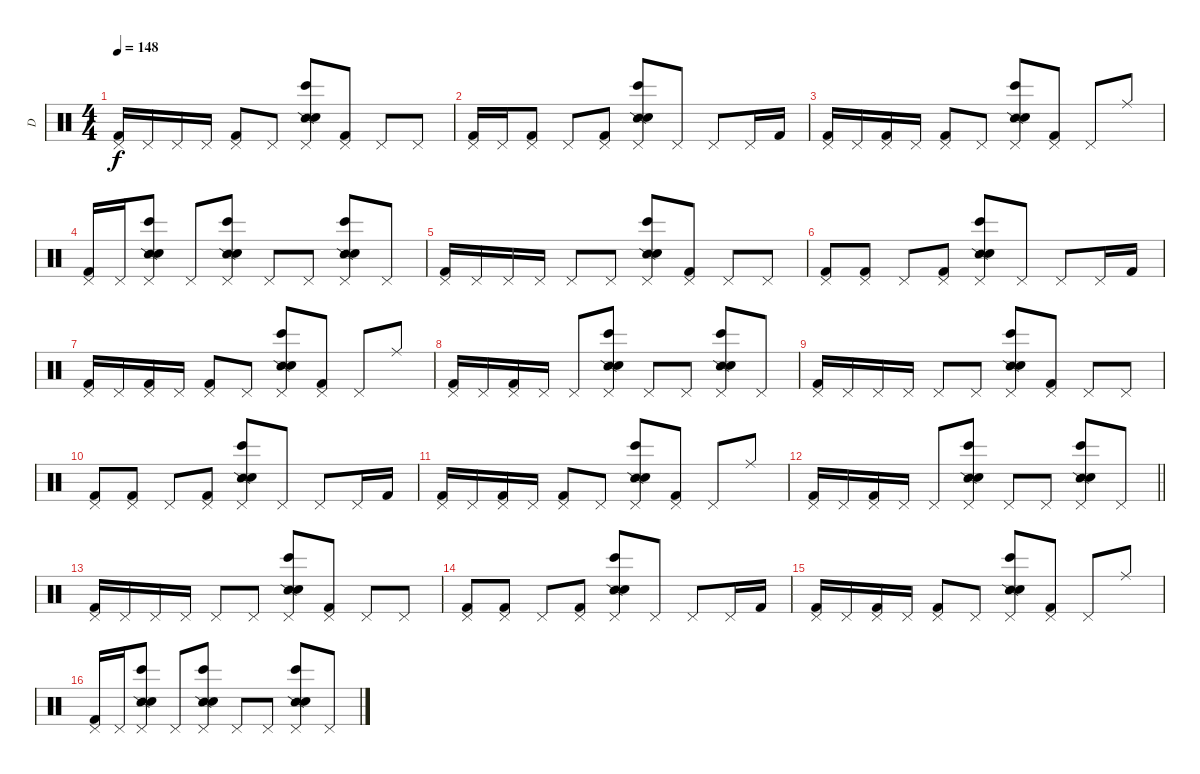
\track ("D" "D") {instrument percussion}
\staff {score}
\articulation defaults
\ts (4 4)
\tempo 148
\clef neutral
\ks c
("Kick (hit) 2" "Pedal Hi-Hat (hit)").16{dy f} "Pedal Hi-Hat (hit)".16 "Pedal Hi-Hat (hit)".16 "Pedal Hi-Hat (hit)".16 ("Kick (hit) 2" "Pedal Hi-Hat (hit)").8 "Pedal Hi-Hat (hit)".8 ("Bongo High (hit)" "Snare (side stick) 2" "Electric Snare (hit)" "Pedal Hi-Hat (hit)").8 ("Kick (hit) 2" "Pedal Hi-Hat (hit)").8 "Pedal Hi-Hat (hit)".8 "Pedal Hi-Hat (hit)".8 |
("Kick (hit) 2" "Pedal Hi-Hat (hit)").16 "Pedal Hi-Hat (hit)".16 ("Kick (hit) 2" "Pedal Hi-Hat (hit)").8 "Pedal Hi-Hat (hit)".8 ("Kick (hit) 2" "Pedal Hi-Hat (hit)").8 ("Bongo High (hit)" "Snare (side stick) 2" "Electric Snare (hit)" "Pedal Hi-Hat (hit)").8 "Pedal Hi-Hat (hit)".8 "Pedal Hi-Hat (hit)".8 "Pedal Hi-Hat (hit)".16 "Kick (hit) 2".16 |
("Kick (hit) 2" "Pedal Hi-Hat (hit)").16 "Pedal Hi-Hat (hit)".16 ("Kick (hit) 2" "Pedal Hi-Hat (hit)").16 "Pedal Hi-Hat (hit)".16 ("Kick (hit) 2" "Pedal Hi-Hat (hit)").8 "Pedal Hi-Hat (hit)".8 ("Bongo High (hit)" "Snare (side stick) 2" "Electric Snare (hit)" "Pedal Hi-Hat (hit)").8 ("Kick (hit) 2" "Pedal Hi-Hat (hit)").8 "Pedal Hi-Hat (hit)".8 "Ride (middle)".8 |
("Kick (hit) 2" "Pedal Hi-Hat (hit)").16 "Pedal Hi-Hat (hit)".16 ("Bongo High (hit)" "Snare (side stick) 2" "Electric Snare (hit)" "Pedal Hi-Hat (hit)").8 "Pedal Hi-Hat (hit)".8 ("Bongo High (hit)" "Snare (side stick) 2" "Electric Snare (hit)" "Pedal Hi-Hat (hit)").8 "Pedal Hi-Hat (hit)".8 "Pedal Hi-Hat (hit)".8 ("Bongo High (hit)" "Snare (side stick) 2" "Electric Snare (hit)" "Pedal Hi-Hat (hit)").8 "Pedal Hi-Hat (hit)".8 |
("Kick (hit) 2" "Pedal Hi-Hat (hit)").16 "Pedal Hi-Hat (hit)".16 "Pedal Hi-Hat (hit)".16 "Pedal Hi-Hat (hit)".16 "Pedal Hi-Hat (hit)".8 "Pedal Hi-Hat (hit)".8 ("Bongo High (hit)" "Snare (side stick) 2" "Electric Snare (hit)" "Pedal Hi-Hat (hit)").8 ("Kick (hit) 2" "Pedal Hi-Hat (hit)").8 "Pedal Hi-Hat (hit)".8 "Pedal Hi-Hat (hit)".8 |
("Kick (hit) 2" "Pedal Hi-Hat (hit)").8 ("Kick (hit) 2" "Pedal Hi-Hat (hit)").8 "Pedal Hi-Hat (hit)".8 ("Kick (hit) 2" "Pedal Hi-Hat (hit)").8 ("Bongo High (hit)" "Snare (side stick) 2" "Electric Snare (hit)" "Pedal Hi-Hat (hit)").8 "Pedal Hi-Hat (hit)".8 "Pedal Hi-Hat (hit)".8 "Pedal Hi-Hat (hit)".16 "Kick (hit) 2".16 |
("Kick (hit) 2" "Pedal Hi-Hat (hit)").16 "Pedal Hi-Hat (hit)".16 ("Kick (hit) 2" "Pedal Hi-Hat (hit)").16 "Pedal Hi-Hat (hit)".16 ("Kick (hit) 2" "Pedal Hi-Hat (hit)").8 "Pedal Hi-Hat (hit)".8 ("Bongo High (hit)" "Snare (side stick) 2" "Electric Snare (hit)" "Pedal Hi-Hat (hit)").8 ("Kick (hit) 2" "Pedal Hi-Hat (hit)").8 "Pedal Hi-Hat (hit)".8 "Ride (middle)".8 |
("Kick (hit) 2" "Pedal Hi-Hat (hit)").16 "Pedal Hi-Hat (hit)".16 ("Kick (hit) 2" "Pedal Hi-Hat (hit)").16 "Pedal Hi-Hat (hit)".16 "Pedal Hi-Hat (hit)".8 ("Bongo High (hit)" "Snare (side stick) 2" "Electric Snare (hit)" "Pedal Hi-Hat (hit)").8 "Pedal Hi-Hat (hit)".8 "Pedal Hi-Hat (hit)".8 ("Bongo High (hit)" "Snare (side stick) 2" "Electric Snare (hit)" "Pedal Hi-Hat (hit)").8 "Pedal Hi-Hat (hit)".8 |
("Kick (hit) 2" "Pedal Hi-Hat (hit)").16 "Pedal Hi-Hat (hit)".16 "Pedal Hi-Hat (hit)".16 "Pedal Hi-Hat (hit)".16 "Pedal Hi-Hat (hit)".8 "Pedal Hi-Hat (hit)".8 ("Bongo High (hit)" "Snare (side stick) 2" "Electric Snare (hit)" "Pedal Hi-Hat (hit)").8 ("Kick (hit) 2" "Pedal Hi-Hat (hit)").8 "Pedal Hi-Hat (hit)".8 "Pedal Hi-Hat (hit)".8 |
("Kick (hit) 2" "Pedal Hi-Hat (hit)").8 ("Kick (hit) 2" "Pedal Hi-Hat (hit)").8 "Pedal Hi-Hat (hit)".8 ("Kick (hit) 2" "Pedal Hi-Hat (hit)").8 ("Bongo High (hit)" "Snare (side stick) 2" "Electric Snare (hit)" "Pedal Hi-Hat (hit)").8 "Pedal Hi-Hat (hit)".8 "Pedal Hi-Hat (hit)".8 "Pedal Hi-Hat (hit)".16 "Kick (hit) 2".16 |
("Kick (hit) 2" "Pedal Hi-Hat (hit)").16 "Pedal Hi-Hat (hit)".16 ("Kick (hit) 2" "Pedal Hi-Hat (hit)").16 "Pedal Hi-Hat (hit)".16 ("Kick (hit) 2" "Pedal Hi-Hat (hit)").8 "Pedal Hi-Hat (hit)".8 ("Bongo High (hit)" "Snare (side stick) 2" "Electric Snare (hit)" "Pedal Hi-Hat (hit)").8 ("Kick (hit) 2" "Pedal Hi-Hat (hit)").8 "Pedal Hi-Hat (hit)".8 "Ride (middle)".8 |
\barLineRight lightlight
("Kick (hit) 2" "Pedal Hi-Hat (hit)").16 "Pedal Hi-Hat (hit)".16 ("Kick (hit) 2" "Pedal Hi-Hat (hit)").16 "Pedal Hi-Hat (hit)".16 "Pedal Hi-Hat (hit)".8 ("Bongo High (hit)" "Snare (side stick) 2" "Electric Snare (hit)" "Pedal Hi-Hat (hit)").8 "Pedal Hi-Hat (hit)".8 "Pedal Hi-Hat (hit)".8 ("Bongo High (hit)" "Snare (side stick) 2" "Electric Snare (hit)" "Pedal Hi-Hat (hit)").8 "Pedal Hi-Hat (hit)".8 |
("Kick (hit) 2" "Pedal Hi-Hat (hit)").16 "Pedal Hi-Hat (hit)".16 "Pedal Hi-Hat (hit)".16 "Pedal Hi-Hat (hit)".16 "Pedal Hi-Hat (hit)".8 "Pedal Hi-Hat (hit)".8 ("Bongo High (hit)" "Snare (side stick) 2" "Electric Snare (hit)" "Pedal Hi-Hat (hit)").8 ("Kick (hit) 2" "Pedal Hi-Hat (hit)").8 "Pedal Hi-Hat (hit)".8 "Pedal Hi-Hat (hit)".8 |
("Kick (hit) 2" "Pedal Hi-Hat (hit)").8 ("Kick (hit) 2" "Pedal Hi-Hat (hit)").8 "Pedal Hi-Hat (hit)".8 ("Kick (hit) 2" "Pedal Hi-Hat (hit)").8 ("Bongo High (hit)" "Snare (side stick) 2" "Electric Snare (hit)" "Pedal Hi-Hat (hit)").8 "Pedal Hi-Hat (hit)".8 "Pedal Hi-Hat (hit)".8 "Pedal Hi-Hat (hit)".16 "Kick (hit) 2".16 |
("Kick (hit) 2" "Pedal Hi-Hat (hit)").16 "Pedal Hi-Hat (hit)".16 ("Kick (hit) 2" "Pedal Hi-Hat (hit)").16 "Pedal Hi-Hat (hit)".16 ("Kick (hit) 2" "Pedal Hi-Hat (hit)").8 "Pedal Hi-Hat (hit)".8 ("Bongo High (hit)" "Snare (side stick) 2" "Electric Snare (hit)" "Pedal Hi-Hat (hit)").8 ("Kick (hit) 2" "Pedal Hi-Hat (hit)").8 "Pedal Hi-Hat (hit)".8 "Ride (middle)".8 |
("Kick (hit) 2" "Pedal Hi-Hat (hit)").16 "Pedal Hi-Hat (hit)".16 ("Bongo High (hit)" "Snare (side stick) 2" "Electric Snare (hit)" "Pedal Hi-Hat (hit)").8 "Pedal Hi-Hat (hit)".8 ("Bongo High (hit)" "Snare (side stick) 2" "Electric Snare (hit)" "Pedal Hi-Hat (hit)").8 "Pedal Hi-Hat (hit)".8 "Pedal Hi-Hat (hit)".8 ("Bongo High (hit)" "Snare (side stick) 2" "Electric Snare (hit)" "Pedal Hi-Hat (hit)").8 "Pedal Hi-Hat (hit)".8
